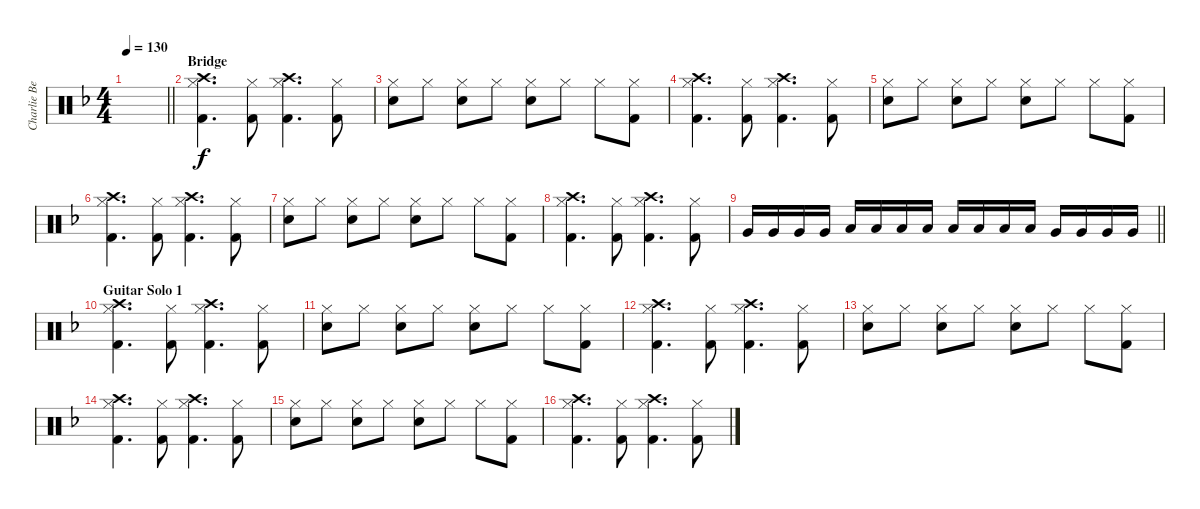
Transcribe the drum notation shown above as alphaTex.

\track ("Charlie Benante" "Charlie Be") {instrument percussion}
\staff {score}
\articulation defaults
\ts (4 4)
\tempo 130
\clef neutral
\barLineRight lightlight
\ks f
|
\section ("" "Bridge")
("Crash high (hit)" "Hi-Hat (closed)" "Kick (hit) 2").4{d} ("Hi-Hat (closed)" "Kick (hit) 2").8 ("Crash high (hit)" "Hi-Hat (closed)" "Kick (hit) 2").4{d} ("Hi-Hat (closed)" "Kick (hit) 2").8 |
("Hi-Hat (closed)" "Electric Snare (hit)").8 "Hi-Hat (closed)".8 ("Hi-Hat (closed)" "Electric Snare (hit)").8 "Hi-Hat (closed)".8 ("Hi-Hat (closed)" "Electric Snare (hit)").8 "Hi-Hat (closed)".8 "Hi-Hat (closed)".8 ("Hi-Hat (closed)" "Kick (hit) 2").8 |
("Crash high (hit)" "Hi-Hat (closed)" "Kick (hit) 2").4{d} ("Hi-Hat (closed)" "Kick (hit) 2").8 ("Crash high (hit)" "Hi-Hat (closed)" "Kick (hit) 2").4{d} ("Hi-Hat (closed)" "Kick (hit) 2").8 |
("Hi-Hat (closed)" "Electric Snare (hit)").8 "Hi-Hat (closed)".8 ("Hi-Hat (closed)" "Electric Snare (hit)").8 "Hi-Hat (closed)".8 ("Hi-Hat (closed)" "Electric Snare (hit)").8 "Hi-Hat (closed)".8 "Hi-Hat (closed)".8 ("Hi-Hat (closed)" "Kick (hit) 2").8 |
("Crash high (hit)" "Hi-Hat (closed)" "Kick (hit) 2").4{d} ("Hi-Hat (closed)" "Kick (hit) 2").8 ("Crash high (hit)" "Hi-Hat (closed)" "Kick (hit) 2").4{d} ("Hi-Hat (closed)" "Kick (hit) 2").8 |
("Hi-Hat (closed)" "Electric Snare (hit)").8 "Hi-Hat (closed)".8 ("Hi-Hat (closed)" "Electric Snare (hit)").8 "Hi-Hat (closed)".8 ("Hi-Hat (closed)" "Electric Snare (hit)").8 "Hi-Hat (closed)".8 "Hi-Hat (closed)".8 ("Hi-Hat (closed)" "Kick (hit) 2").8 |
("Crash high (hit)" "Hi-Hat (closed)" "Kick (hit) 2").4{d} ("Hi-Hat (closed)" "Kick (hit) 2").8 ("Crash high (hit)" "Hi-Hat (closed)" "Kick (hit) 2").4{d} ("Hi-Hat (closed)" "Kick (hit) 2").8 |
\barLineRight lightlight "Very Low Tom (hit)".16 "Very Low Tom (hit)".16 "Very Low Tom (hit)".16 "Very Low Tom (hit)".16 "Low Floor Tom (hit)".16 "Low Floor Tom (hit)".16 "Low Floor Tom (hit)".16 "Low Floor Tom (hit)".16 "Low Tom (hit)".16 "Low Tom (hit)".16 "Low Tom (hit)".16 "Low Tom (hit)".16 "Very Low Tom (hit)".16 "Very Low Tom (hit)".16 "Very Low Tom (hit)".16 "Very Low Tom (hit)".16
|
\section ("" "Guitar Solo 1")
("Crash high (hit)" "Hi-Hat (closed)" "Kick (hit) 2").4{d} ("Hi-Hat (closed)" "Kick (hit) 2").8 ("Crash high (hit)" "Hi-Hat (closed)" "Kick (hit) 2").4{d} ("Hi-Hat (closed)" "Kick (hit) 2").8 |
("Hi-Hat (closed)" "Electric Snare (hit)").8 "Hi-Hat (closed)".8 ("Hi-Hat (closed)" "Electric Snare (hit)").8 "Hi-Hat (closed)".8 ("Hi-Hat (closed)" "Electric Snare (hit)").8 "Hi-Hat (closed)".8 "Hi-Hat (closed)".8 ("Hi-Hat (closed)" "Kick (hit) 2").8 |
("Crash high (hit)" "Hi-Hat (closed)" "Kick (hit) 2").4{d} ("Hi-Hat (closed)" "Kick (hit) 2").8 ("Crash high (hit)" "Hi-Hat (closed)" "Kick (hit) 2").4{d} ("Hi-Hat (closed)" "Kick (hit) 2").8 |
("Hi-Hat (closed)" "Electric Snare (hit)").8 "Hi-Hat (closed)".8 ("Hi-Hat (closed)" "Electric Snare (hit)").8 "Hi-Hat (closed)".8 ("Hi-Hat (closed)" "Electric Snare (hit)").8 "Hi-Hat (closed)".8 "Hi-Hat (closed)".8 ("Hi-Hat (closed)" "Kick (hit) 2").8 |
("Crash high (hit)" "Hi-Hat (closed)" "Kick (hit) 2").4{d} ("Hi-Hat (closed)" "Kick (hit) 2").8 ("Crash high (hit)" "Hi-Hat (closed)" "Kick (hit) 2").4{d} ("Hi-Hat (closed)" "Kick (hit) 2").8 |
("Hi-Hat (closed)" "Electric Snare (hit)").8 "Hi-Hat (closed)".8 ("Hi-Hat (closed)" "Electric Snare (hit)").8 "Hi-Hat (closed)".8 ("Hi-Hat (closed)" "Electric Snare (hit)").8 "Hi-Hat (closed)".8 "Hi-Hat (closed)".8 ("Hi-Hat (closed)" "Kick (hit) 2").8 |
("Crash high (hit)" "Hi-Hat (closed)" "Kick (hit) 2").4{d} ("Hi-Hat (closed)" "Kick (hit) 2").8 ("Crash high (hit)" "Hi-Hat (closed)" "Kick (hit) 2").4{d} ("Hi-Hat (closed)" "Kick (hit) 2").8
